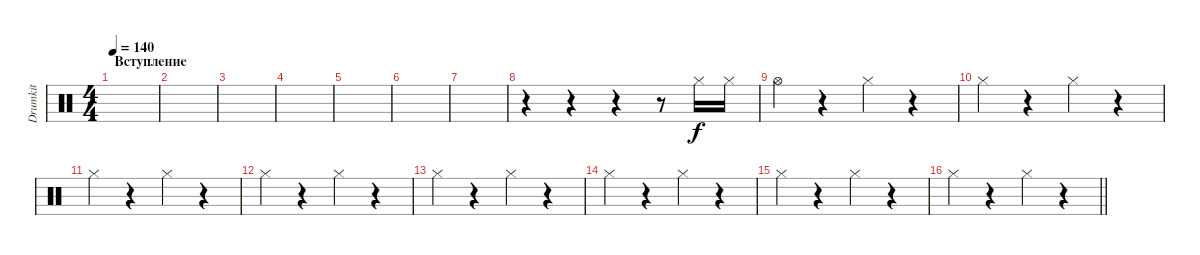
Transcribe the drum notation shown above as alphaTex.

\track ("Drumkit" "Drumkit") {instrument percussion}
\staff {score}
\articulation defaults
\ts (4 4)
\section ("" "Вступление")
\tempo 140
\clef neutral
\ks c
|
|
|
|
|
|
|
r.4 r.4 r.4 r.8 "Hi-Hat (closed)".16 "Hi-Hat (closed)".16 |
"Hi-Hat (open)".4 r.4 "Hi-Hat (closed)".4 r.4 |
"Hi-Hat (closed)".4 r.4 "Hi-Hat (closed)".4 r.4 |
"Hi-Hat (closed)".4 r.4 "Hi-Hat (closed)".4 r.4 |
"Hi-Hat (closed)".4 r.4 "Hi-Hat (closed)".4 r.4 |
"Hi-Hat (closed)".4 r.4 "Hi-Hat (closed)".4 r.4 |
"Hi-Hat (closed)".4 r.4 "Hi-Hat (closed)".4 r.4 |
"Hi-Hat (closed)".4 r.4 "Hi-Hat (closed)".4 r.4 |
\barLineRight lightlight "Hi-Hat (closed)".4
r.4 "Hi-Hat (closed)".4 r.4
